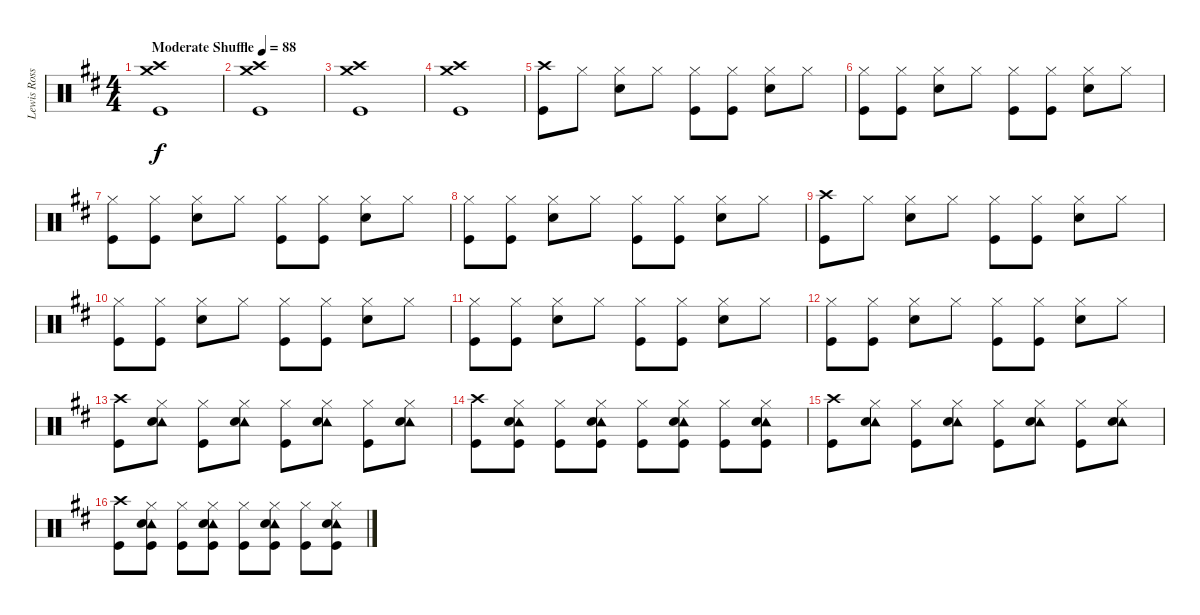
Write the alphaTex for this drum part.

\track ("Lewis Ross Drums" "Lewis Ross") {instrument percussion}
\staff {score}
\articulation defaults
\ts (4 4)
\tempo (88 "Moderate Shuffle")
\clef neutral
\ks d
("Crash high (hit)" "Crash medium (hit)" "Kick (hit)").1{dy f} |
("Crash high (hit)" "Crash medium (hit)" "Kick (hit)").1 |
("Crash high (hit)" "Crash medium (hit)" "Kick (hit)").1 |
("Crash high (hit)" "Crash medium (hit)" "Kick (hit)").1 |
("Crash high (hit)" "Kick (hit)").8 "Hi-Hat (closed)".8 ("Hi-Hat (closed)" "Snare (hit) 2").8 "Hi-Hat (closed)".8 ("Hi-Hat (closed)" "Kick (hit)").8 ("Hi-Hat (closed)" "Kick (hit)").8 ("Hi-Hat (closed)" "Snare (hit) 2").8 "Hi-Hat (closed)".8 |
("Hi-Hat (closed)" "Kick (hit)").8 ("Hi-Hat (closed)" "Kick (hit)").8 ("Hi-Hat (closed)" "Snare (hit) 2").8 "Hi-Hat (closed)".8 ("Hi-Hat (closed)" "Kick (hit)").8 ("Hi-Hat (closed)" "Kick (hit)").8 ("Hi-Hat (closed)" "Snare (hit) 2").8 "Hi-Hat (closed)".8 |
("Hi-Hat (closed)" "Kick (hit)").8 ("Hi-Hat (closed)" "Kick (hit)").8 ("Hi-Hat (closed)" "Snare (hit) 2").8 "Hi-Hat (closed)".8 ("Hi-Hat (closed)" "Kick (hit)").8 ("Hi-Hat (closed)" "Kick (hit)").8 ("Hi-Hat (closed)" "Snare (hit) 2").8 "Hi-Hat (closed)".8 |
("Hi-Hat (closed)" "Kick (hit)").8 ("Hi-Hat (closed)" "Kick (hit)").8 ("Hi-Hat (closed)" "Snare (hit) 2").8 "Hi-Hat (closed)".8 ("Hi-Hat (closed)" "Kick (hit)").8 ("Hi-Hat (closed)" "Kick (hit)").8 ("Hi-Hat (closed)" "Snare (hit) 2").8 "Hi-Hat (closed)".8 |
("Crash high (hit)" "Kick (hit)").8 "Hi-Hat (closed)".8 ("Hi-Hat (closed)" "Snare (hit) 2").8 "Hi-Hat (closed)".8 ("Hi-Hat (closed)" "Kick (hit)").8 ("Hi-Hat (closed)" "Kick (hit)").8 ("Hi-Hat (closed)" "Snare (hit) 2").8 "Hi-Hat (closed)".8 |
("Hi-Hat (closed)" "Kick (hit)").8 ("Hi-Hat (closed)" "Kick (hit)").8 ("Hi-Hat (closed)" "Snare (hit) 2").8 "Hi-Hat (closed)".8 ("Hi-Hat (closed)" "Kick (hit)").8 ("Hi-Hat (closed)" "Kick (hit)").8 ("Hi-Hat (closed)" "Snare (hit) 2").8 "Hi-Hat (closed)".8 |
("Hi-Hat (closed)" "Kick (hit)").8 ("Hi-Hat (closed)" "Kick (hit)").8 ("Hi-Hat (closed)" "Snare (hit) 2").8 "Hi-Hat (closed)".8 ("Hi-Hat (closed)" "Kick (hit)").8 ("Hi-Hat (closed)" "Kick (hit)").8 ("Hi-Hat (closed)" "Snare (hit) 2").8 "Hi-Hat (closed)".8 |
("Hi-Hat (closed)" "Kick (hit)").8 ("Hi-Hat (closed)" "Kick (hit)").8 ("Hi-Hat (closed)" "Snare (hit) 2").8 "Hi-Hat (closed)".8 ("Hi-Hat (closed)" "Kick (hit)").8 ("Hi-Hat (closed)" "Kick (hit)").8 ("Hi-Hat (closed)" "Snare (hit) 2").8 "Hi-Hat (closed)".8 |
("Crash high (hit)" "Kick (hit)").8 ("Hi-Hat (closed)" "Tambourine (hit)" "Snare (hit) 2").8 ("Hi-Hat (closed)" "Kick (hit)").8 ("Hi-Hat (closed)" "Tambourine (hit)" "Snare (hit) 2").8 ("Hi-Hat (closed)" "Kick (hit)").8 ("Hi-Hat (closed)" "Tambourine (hit)" "Snare (hit) 2").8 ("Hi-Hat (closed)" "Kick (hit)").8 ("Hi-Hat (closed)" "Tambourine (hit)" "Snare (hit) 2").8 |
("Crash high (hit)" "Kick (hit)").8 ("Hi-Hat (closed)" "Tambourine (hit)" "Snare (hit) 2" "Kick (hit)").8 ("Hi-Hat (closed)" "Kick (hit)").8 ("Hi-Hat (closed)" "Tambourine (hit)" "Snare (hit) 2" "Kick (hit)").8 ("Hi-Hat (closed)" "Kick (hit)").8 ("Hi-Hat (closed)" "Tambourine (hit)" "Snare (hit) 2" "Kick (hit)").8 ("Hi-Hat (closed)" "Kick (hit)").8 ("Hi-Hat (closed)" "Tambourine (hit)" "Snare (hit) 2" "Kick (hit)").8 |
("Crash high (hit)" "Kick (hit)").8 ("Hi-Hat (closed)" "Tambourine (hit)" "Snare (hit) 2").8 ("Hi-Hat (closed)" "Kick (hit)").8 ("Hi-Hat (closed)" "Tambourine (hit)" "Snare (hit) 2").8 ("Hi-Hat (closed)" "Kick (hit)").8 ("Hi-Hat (closed)" "Tambourine (hit)" "Snare (hit) 2").8 ("Hi-Hat (closed)" "Kick (hit)").8 ("Hi-Hat (closed)" "Tambourine (hit)" "Snare (hit) 2").8 |
("Crash high (hit)" "Kick (hit)").8 ("Hi-Hat (closed)" "Tambourine (hit)" "Snare (hit) 2" "Kick (hit)").8 ("Hi-Hat (closed)" "Kick (hit)").8 ("Hi-Hat (closed)" "Tambourine (hit)" "Snare (hit) 2" "Kick (hit)").8 ("Hi-Hat (closed)" "Kick (hit)").8 ("Hi-Hat (closed)" "Tambourine (hit)" "Snare (hit) 2" "Kick (hit)").8 ("Hi-Hat (closed)" "Kick (hit)").8 ("Hi-Hat (closed)" "Tambourine (hit)" "Snare (hit) 2" "Kick (hit)").8
